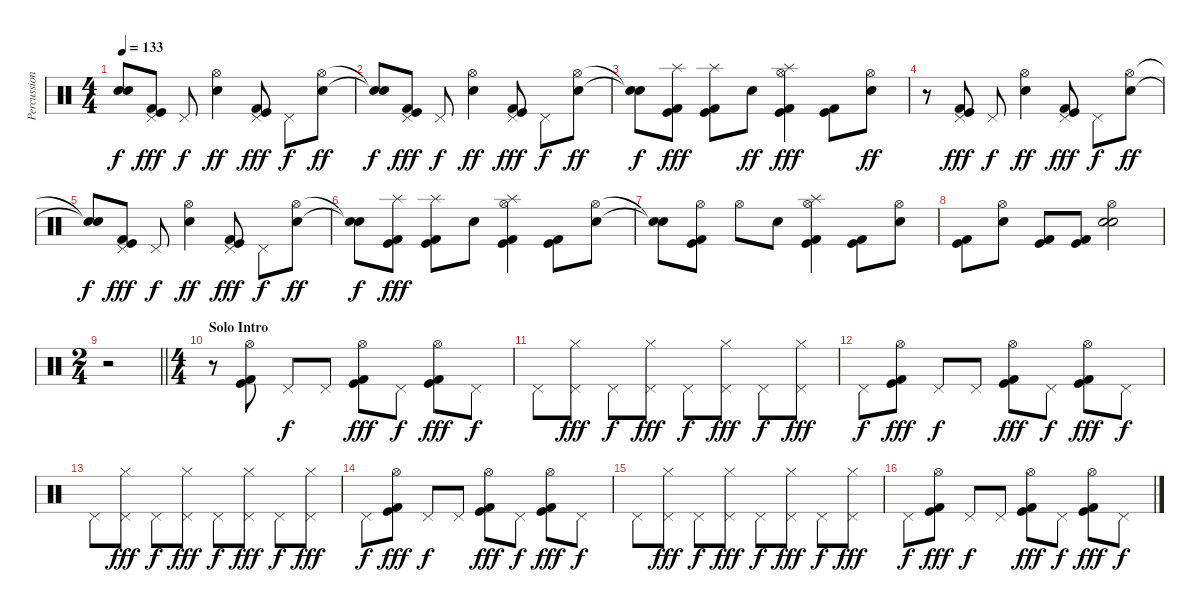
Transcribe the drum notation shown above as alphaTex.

\track ("Percussion" "Percussion") {instrument percussion}
\staff {score}
\articulation defaults
\ts (4 4)
\tempo 133
\clef neutral
\ks c
("Snare (hit)"{t} "Snare (hit)"{t}).8{dy f} ("Pedal Hi-Hat (hit)" "Kick (hit)" "Kick (hit) 2").8{dy fff} "Pedal Hi-Hat (hit)".8{dy f} ("Hi-Hat (open)" "Snare (hit) 2").4{dy ff} ("Pedal Hi-Hat (hit)" "Kick (hit)" "Kick (hit) 2").8{dy fff} "Pedal Hi-Hat (hit)".8{dy f} ("Hi-Hat (open)" "Snare (hit) 2").8{dy ff} |
("Snare (hit)"{t} "Snare (hit)"{t}).8{dy f} ("Pedal Hi-Hat (hit)" "Kick (hit)" "Kick (hit) 2").8{dy fff} "Pedal Hi-Hat (hit)".8{dy f} ("Hi-Hat (open)" "Snare (hit) 2").4{dy ff} ("Pedal Hi-Hat (hit)" "Kick (hit)" "Kick (hit) 2").8{dy fff} "Pedal Hi-Hat (hit)".8{dy f} ("Hi-Hat (open)" "Snare (hit) 2").8{dy ff} |
("Snare (hit)"{t} "Snare (hit)"{t}).8{dy f} ("Splash (hit)" "Kick (hit)" "Kick (hit) 2").8{dy fff} ("Splash (hit)" "Kick (hit)" "Kick (hit) 2").8 "Snare (hit) 2".8{dy ff} ("Splash (hit)" "Hi-Hat (open)" "Kick (hit)" "Kick (hit) 2").4{dy fff} ("Kick (hit)" "Kick (hit) 2").8 ("Hi-Hat (open)" "Snare (hit) 2").8{dy ff} |
r.8 ("Pedal Hi-Hat (hit)" "Kick (hit)" "Kick (hit) 2").8{dy fff} "Pedal Hi-Hat (hit)".8{dy f} ("Hi-Hat (open)" "Snare (hit) 2").4{dy ff} ("Pedal Hi-Hat (hit)" "Kick (hit)" "Kick (hit) 2").8{dy fff} "Pedal Hi-Hat (hit)".8{dy f} ("Hi-Hat (open)" "Snare (hit) 2").8{dy ff} |
("Snare (hit)"{t} "Snare (hit)"{t}).8{dy f} ("Pedal Hi-Hat (hit)" "Kick (hit)" "Kick (hit) 2").8{dy fff} "Pedal Hi-Hat (hit)".8{dy f} ("Hi-Hat (open)" "Snare (hit) 2").4{dy ff} ("Pedal Hi-Hat (hit)" "Kick (hit)" "Kick (hit) 2").8{dy fff} "Pedal Hi-Hat (hit)".8{dy f} ("Hi-Hat (open)" "Snare (hit) 2").8{dy ff} |
("Snare (hit)"{t} "Snare (hit)"{t}).8{dy f} ("Splash (hit)" "Kick (hit)" "Kick (hit) 2").8{dy fff} ("Splash (hit)" "Kick (hit)" "Kick (hit) 2").8 "Snare (hit) 2".8 ("Splash (hit)" "Hi-Hat (open)" "Kick (hit)" "Kick (hit) 2").4 ("Kick (hit)" "Kick (hit) 2").8 ("Hi-Hat (open)" "Snare (hit) 2").8 |
("Snare (hit)"{t} "Snare (hit)"{t}).8 ("Hi-Hat (open)" "Kick (hit)" "Kick (hit) 2").8 "Hi-Hat (open)".8 "Snare (hit) 2".8 ("Splash (hit)" "Hi-Hat (open)" "Kick (hit)" "Kick (hit) 2").4 ("Kick (hit)" "Kick (hit) 2").8 ("Hi-Hat (open)" "Snare (hit) 2").8 |
("Kick (hit)" "Kick (hit) 2").8 ("Hi-Hat (open)" "Snare (hit) 2").8 ("Kick (hit)" "Kick (hit) 2").8 ("Kick (hit)" "Kick (hit) 2").8 ("Hi-Hat (open)" "Snare (hit) 2" "Electric Snare (hit)").2{bd 60} |
\ts (2 4)
\barLineRight lightlight
r.2 |
\ts (4 4)
\section ("" "Solo Intro")
r.8 ("Hi-Hat (open)" "Kick (hit)" "Kick (hit) 2").8 "Pedal Hi-Hat (hit)".8{dy f} "Pedal Hi-Hat (hit)".8 ("Hi-Hat (open)" "Kick (hit)" "Kick (hit) 2").8{dy fff} "Pedal Hi-Hat (hit)".8{dy f} ("Hi-Hat (open)" "Kick (hit)" "Kick (hit) 2").8{dy fff} "Pedal Hi-Hat (hit)".8{dy f} |
"Pedal Hi-Hat (hit)".8 ("Pedal Hi-Hat (hit)" "Hi-Hat (closed)").8{dy fff} "Pedal Hi-Hat (hit)".8{dy f} ("Pedal Hi-Hat (hit)" "Hi-Hat (closed)").8{dy fff} "Pedal Hi-Hat (hit)".8{dy f} ("Pedal Hi-Hat (hit)" "Hi-Hat (closed)").8{dy fff} "Pedal Hi-Hat (hit)".8{dy f} ("Pedal Hi-Hat (hit)" "Hi-Hat (closed)").8{dy fff} |
"Pedal Hi-Hat (hit)".8{dy f} ("Hi-Hat (open)" "Kick (hit)" "Kick (hit) 2").8{dy fff} "Pedal Hi-Hat (hit)".8{dy f} "Pedal Hi-Hat (hit)".8 ("Hi-Hat (open)" "Kick (hit)" "Kick (hit) 2").8{dy fff} "Pedal Hi-Hat (hit)".8{dy f} ("Hi-Hat (open)" "Kick (hit)" "Kick (hit) 2").8{dy fff} "Pedal Hi-Hat (hit)".8{dy f} |
"Pedal Hi-Hat (hit)".8 ("Pedal Hi-Hat (hit)" "Hi-Hat (closed)").8{dy fff} "Pedal Hi-Hat (hit)".8{dy f} ("Pedal Hi-Hat (hit)" "Hi-Hat (closed)").8{dy fff} "Pedal Hi-Hat (hit)".8{dy f} ("Pedal Hi-Hat (hit)" "Hi-Hat (closed)").8{dy fff} "Pedal Hi-Hat (hit)".8{dy f} ("Pedal Hi-Hat (hit)" "Hi-Hat (closed)").8{dy fff} |
"Pedal Hi-Hat (hit)".8{dy f} ("Hi-Hat (open)" "Kick (hit)" "Kick (hit) 2").8{dy fff} "Pedal Hi-Hat (hit)".8{dy f} "Pedal Hi-Hat (hit)".8 ("Hi-Hat (open)" "Kick (hit)" "Kick (hit) 2").8{dy fff} "Pedal Hi-Hat (hit)".8{dy f} ("Hi-Hat (open)" "Kick (hit)" "Kick (hit) 2").8{dy fff} "Pedal Hi-Hat (hit)".8{dy f} |
"Pedal Hi-Hat (hit)".8 ("Pedal Hi-Hat (hit)" "Hi-Hat (closed)").8{dy fff} "Pedal Hi-Hat (hit)".8{dy f} ("Pedal Hi-Hat (hit)" "Hi-Hat (closed)").8{dy fff} "Pedal Hi-Hat (hit)".8{dy f} ("Pedal Hi-Hat (hit)" "Hi-Hat (closed)").8{dy fff} "Pedal Hi-Hat (hit)".8{dy f} ("Pedal Hi-Hat (hit)" "Hi-Hat (closed)").8{dy fff} |
"Pedal Hi-Hat (hit)".8{dy f} ("Hi-Hat (open)" "Kick (hit)" "Kick (hit) 2").8{dy fff} "Pedal Hi-Hat (hit)".8{dy f} "Pedal Hi-Hat (hit)".8 ("Hi-Hat (open)" "Kick (hit)" "Kick (hit) 2").8{dy fff} "Pedal Hi-Hat (hit)".8{dy f} ("Hi-Hat (open)" "Kick (hit)" "Kick (hit) 2").8{dy fff} "Pedal Hi-Hat (hit)".8{dy f}
